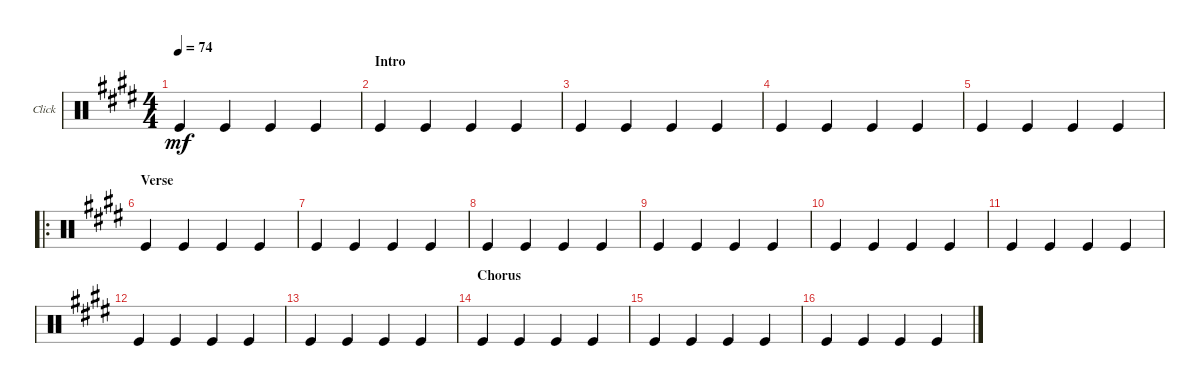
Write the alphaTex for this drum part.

\bracketExtendMode groupsimilarinstruments
\useSystemSignSeparator
\multiTrackTrackNamePolicy allsystems
\firstSystemTrackNameOrientation horizontal
\otherSystemsTrackNameOrientation horizontal
\track ("Click" "Click") {mute instrument percussion}
\staff {score}
\articulation defaults
\ts (4 4)
\tempo 74
\clef neutral
\scale
0.512367
\ks c#minor "Kick (hit)".4{dy mf} "Kick (hit)".4 "Kick (hit)".4 "Kick (hit)".4
|
\section ("" "Intro")
\scale
0.243816 "Kick (hit)".4 "Kick (hit)".4 "Kick (hit)".4 "Kick (hit)".4 |
\scale
0.243816 "Kick (hit)".4 "Kick (hit)".4 "Kick (hit)".4 "Kick (hit)".4 |
\scale
0.333333 "Kick (hit)".4 "Kick (hit)".4 "Kick (hit)".4 "Kick (hit)".4 |
\scale
0.333333 "Kick (hit)".4 "Kick (hit)".4 "Kick (hit)".4 "Kick (hit)".4 |
\ro
\section ("" "Verse")
\scale
0.333333 "Kick (hit)".4 "Kick (hit)".4 "Kick (hit)".4 "Kick (hit)".4 |
\scale
0.333333 "Kick (hit)".4 "Kick (hit)".4 "Kick (hit)".4 "Kick (hit)".4 |
\scale
0.333333 "Kick (hit)".4 "Kick (hit)".4 "Kick (hit)".4 "Kick (hit)".4 |
\scale
0.333333 "Kick (hit)".4 "Kick (hit)".4 "Kick (hit)".4 "Kick (hit)".4 |
\scale
0.333333 "Kick (hit)".4 "Kick (hit)".4 "Kick (hit)".4 "Kick (hit)".4 |
\scale
0.333333 "Kick (hit)".4 "Kick (hit)".4 "Kick (hit)".4 "Kick (hit)".4 |
\scale
0.333333 "Kick (hit)".4 "Kick (hit)".4 "Kick (hit)".4 "Kick (hit)".4 |
\scale
0.333333 "Kick (hit)".4 "Kick (hit)".4 "Kick (hit)".4 "Kick (hit)".4 |
\section ("" "Chorus")
\scale
0.333333 "Kick (hit)".4 "Kick (hit)".4 "Kick (hit)".4 "Kick (hit)".4 |
\scale
0.333333 "Kick (hit)".4 "Kick (hit)".4 "Kick (hit)".4 "Kick (hit)".4 |
\scale
0.333333 "Kick (hit)".4 "Kick (hit)".4 "Kick (hit)".4 "Kick (hit)".4
